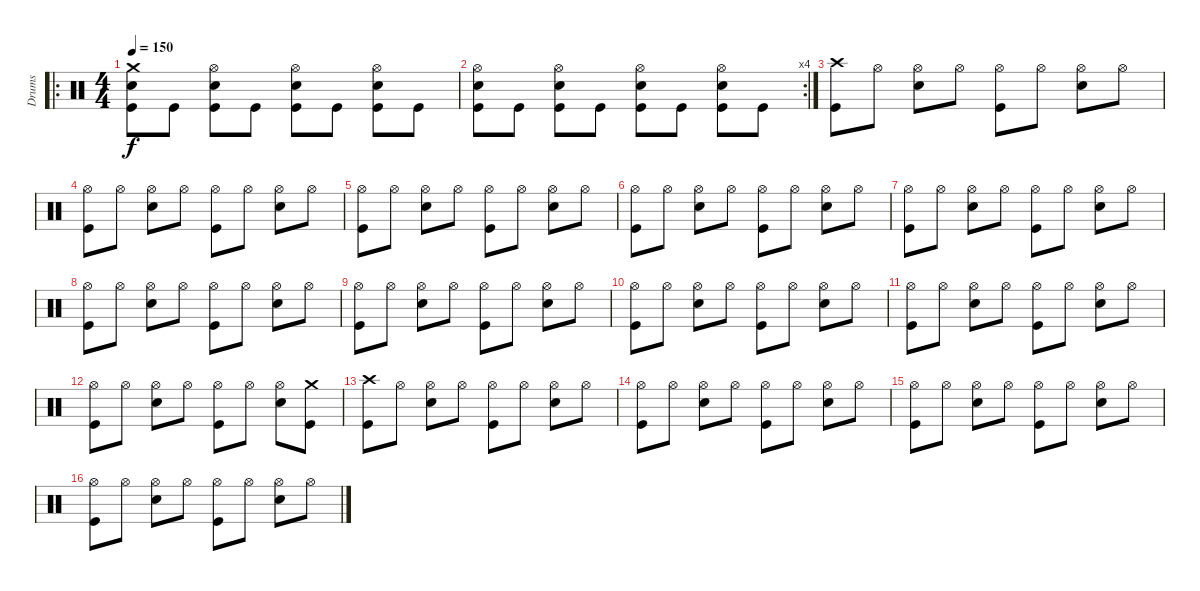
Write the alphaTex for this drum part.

\track ("Drums" "Drums") {instrument percussion}
\staff {score}
\articulation defaults
\ro
\ts (4 4)
\tempo 150
\clef neutral
\ks c
("Crash medium (hit)" "Snare (hit) 2" "Kick (hit)").8{dy f} "Kick (hit)".8 ("Hi-Hat (open)" "Snare (hit) 2" "Kick (hit)").8 "Kick (hit)".8 ("Hi-Hat (open)" "Snare (hit) 2" "Kick (hit)").8 "Kick (hit)".8 ("Hi-Hat (open)" "Snare (hit) 2" "Kick (hit)").8 "Kick (hit)".8 |
\rc 4
("Hi-Hat (open)" "Snare (hit) 2" "Kick (hit)").8 "Kick (hit)".8 ("Hi-Hat (open)" "Snare (hit) 2" "Kick (hit)").8 "Kick (hit)".8 ("Hi-Hat (open)" "Snare (hit) 2" "Kick (hit)").8 "Kick (hit)".8 ("Hi-Hat (open)" "Snare (hit) 2" "Kick (hit)").8 "Kick (hit)".8 |
("Crash high (hit)" "Kick (hit)").8 "Hi-Hat (open)".8 ("Hi-Hat (open)" "Snare (hit) 2").8 "Hi-Hat (open)".8 ("Hi-Hat (open)" "Kick (hit)").8 "Hi-Hat (open)".8 ("Hi-Hat (open)" "Snare (hit) 2").8 "Hi-Hat (open)".8 |
("Hi-Hat (open)" "Kick (hit)").8 "Hi-Hat (open)".8 ("Hi-Hat (open)" "Snare (hit) 2").8 "Hi-Hat (open)".8 ("Hi-Hat (open)" "Kick (hit)").8 "Hi-Hat (open)".8 ("Hi-Hat (open)" "Snare (hit) 2").8 "Hi-Hat (open)".8 |
("Hi-Hat (open)" "Kick (hit)").8 "Hi-Hat (open)".8 ("Hi-Hat (open)" "Snare (hit) 2").8 "Hi-Hat (open)".8 ("Hi-Hat (open)" "Kick (hit)").8 "Hi-Hat (open)".8 ("Hi-Hat (open)" "Snare (hit) 2").8 "Hi-Hat (open)".8 |
("Hi-Hat (open)" "Kick (hit)").8 "Hi-Hat (open)".8 ("Hi-Hat (open)" "Snare (hit) 2").8 "Hi-Hat (open)".8 ("Hi-Hat (open)" "Kick (hit)").8 "Hi-Hat (open)".8 ("Hi-Hat (open)" "Snare (hit) 2").8 "Hi-Hat (open)".8 |
("Hi-Hat (open)" "Kick (hit)").8 "Hi-Hat (open)".8 ("Hi-Hat (open)" "Snare (hit) 2").8 "Hi-Hat (open)".8 ("Hi-Hat (open)" "Kick (hit)").8 "Hi-Hat (open)".8 ("Hi-Hat (open)" "Snare (hit) 2").8 "Hi-Hat (open)".8 |
("Hi-Hat (open)" "Kick (hit)").8 "Hi-Hat (open)".8 ("Hi-Hat (open)" "Snare (hit) 2").8 "Hi-Hat (open)".8 ("Hi-Hat (open)" "Kick (hit)").8 "Hi-Hat (open)".8 ("Hi-Hat (open)" "Snare (hit) 2").8 "Hi-Hat (open)".8 |
("Hi-Hat (open)" "Kick (hit)").8 "Hi-Hat (open)".8 ("Hi-Hat (open)" "Snare (hit) 2").8 "Hi-Hat (open)".8 ("Hi-Hat (open)" "Kick (hit)").8 "Hi-Hat (open)".8 ("Hi-Hat (open)" "Snare (hit) 2").8 "Hi-Hat (open)".8 |
("Hi-Hat (open)" "Kick (hit)").8 "Hi-Hat (open)".8 ("Hi-Hat (open)" "Snare (hit) 2").8 "Hi-Hat (open)".8 ("Hi-Hat (open)" "Kick (hit)").8 "Hi-Hat (open)".8 ("Hi-Hat (open)" "Snare (hit) 2").8 "Hi-Hat (open)".8 |
("Hi-Hat (open)" "Kick (hit)").8 "Hi-Hat (open)".8 ("Hi-Hat (open)" "Snare (hit) 2").8 "Hi-Hat (open)".8 ("Hi-Hat (open)" "Kick (hit)").8 "Hi-Hat (open)".8 ("Hi-Hat (open)" "Snare (hit) 2").8 "Hi-Hat (open)".8 |
("Hi-Hat (open)" "Kick (hit)").8 "Hi-Hat (open)".8 ("Hi-Hat (open)" "Snare (hit) 2").8 "Hi-Hat (open)".8 ("Hi-Hat (open)" "Kick (hit)").8 "Hi-Hat (open)".8 ("Hi-Hat (open)" "Snare (hit) 2").8 ("Crash medium (hit)" "Kick (hit)").8 |
("Crash high (hit)" "Kick (hit)").8 "Hi-Hat (open)".8 ("Hi-Hat (open)" "Snare (hit) 2").8 "Hi-Hat (open)".8 ("Hi-Hat (open)" "Kick (hit)").8 "Hi-Hat (open)".8 ("Hi-Hat (open)" "Snare (hit) 2").8 "Hi-Hat (open)".8 |
("Hi-Hat (open)" "Kick (hit)").8 "Hi-Hat (open)".8 ("Hi-Hat (open)" "Snare (hit) 2").8 "Hi-Hat (open)".8 ("Hi-Hat (open)" "Kick (hit)").8 "Hi-Hat (open)".8 ("Hi-Hat (open)" "Snare (hit) 2").8 "Hi-Hat (open)".8 |
("Hi-Hat (open)" "Kick (hit)").8 "Hi-Hat (open)".8 ("Hi-Hat (open)" "Snare (hit) 2").8 "Hi-Hat (open)".8 ("Hi-Hat (open)" "Kick (hit)").8 "Hi-Hat (open)".8 ("Hi-Hat (open)" "Snare (hit) 2").8 "Hi-Hat (open)".8 |
("Hi-Hat (open)" "Kick (hit)").8 "Hi-Hat (open)".8 ("Hi-Hat (open)" "Snare (hit) 2").8 "Hi-Hat (open)".8 ("Hi-Hat (open)" "Kick (hit)").8 "Hi-Hat (open)".8 ("Hi-Hat (open)" "Snare (hit) 2").8 "Hi-Hat (open)".8
